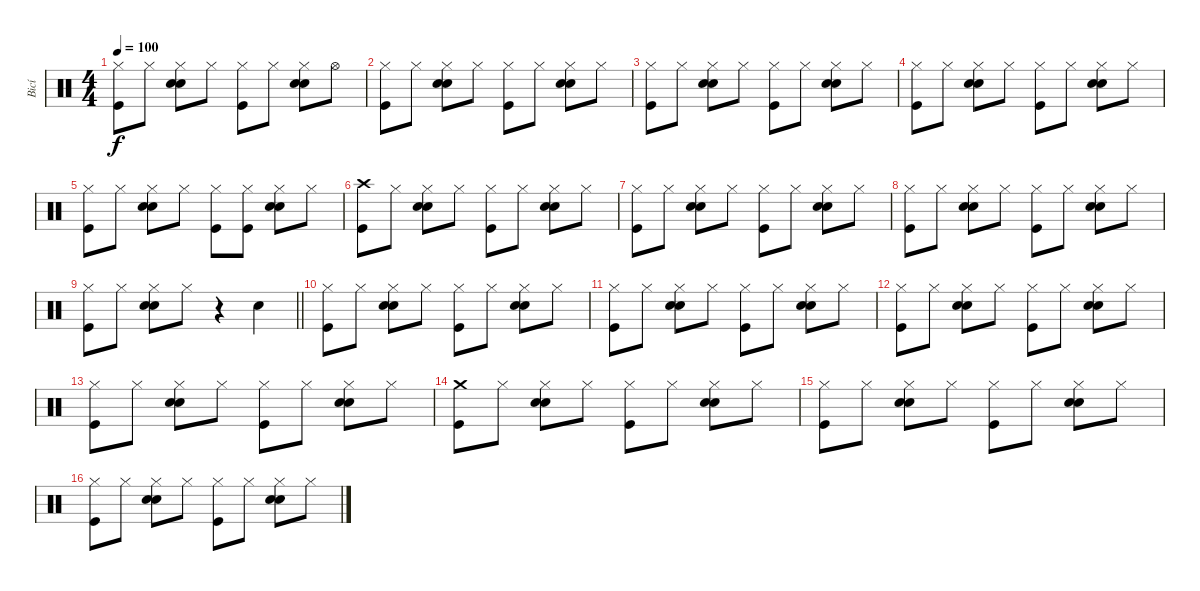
\track ("Bicí" "Bicí") {instrument percussion}
\staff {score}
\articulation defaults
\ts (4 4)
\tempo 100
\clef neutral
\ks c
("Hi-Hat (closed)" "Kick (hit)").8{dy f} "Hi-Hat (closed)".8 ("Hi-Hat (closed)" "Hand Clap (hit)" "Electric Snare (hit)").8 "Hi-Hat (closed)".8 ("Hi-Hat (closed)" "Kick (hit)").8 "Hi-Hat (closed)".8 ("Hi-Hat (closed)" "Hand Clap (hit)" "Electric Snare (hit)").8 "Hi-Hat (open)".8 |
("Hi-Hat (closed)" "Kick (hit)").8 "Hi-Hat (closed)".8 ("Hi-Hat (closed)" "Hand Clap (hit)" "Electric Snare (hit)").8 "Hi-Hat (closed)".8 ("Hi-Hat (closed)" "Kick (hit)").8 "Hi-Hat (closed)".8 ("Hi-Hat (closed)" "Hand Clap (hit)" "Electric Snare (hit)").8 "Hi-Hat (closed)".8 |
("Hi-Hat (closed)" "Kick (hit)").8 "Hi-Hat (closed)".8 ("Hi-Hat (closed)" "Hand Clap (hit)" "Electric Snare (hit)").8 "Hi-Hat (closed)".8 ("Hi-Hat (closed)" "Kick (hit)").8 "Hi-Hat (closed)".8 ("Hi-Hat (closed)" "Hand Clap (hit)" "Electric Snare (hit)").8 "Hi-Hat (closed)".8 |
("Hi-Hat (closed)" "Kick (hit)").8 "Hi-Hat (closed)".8 ("Hi-Hat (closed)" "Hand Clap (hit)" "Electric Snare (hit)").8 "Hi-Hat (closed)".8 ("Hi-Hat (closed)" "Kick (hit)").8 "Hi-Hat (closed)".8 ("Hi-Hat (closed)" "Hand Clap (hit)" "Electric Snare (hit)").8 "Hi-Hat (closed)".8 |
("Hi-Hat (closed)" "Kick (hit)").8 "Hi-Hat (closed)".8 ("Hi-Hat (closed)" "Hand Clap (hit)" "Electric Snare (hit)").8 "Hi-Hat (closed)".8 ("Hi-Hat (closed)" "Kick (hit)").8 ("Hi-Hat (closed)" "Kick (hit)").8 ("Hi-Hat (closed)" "Hand Clap (hit)" "Electric Snare (hit)").8 "Hi-Hat (closed)".8 |
("Crash high (hit)" "Kick (hit)").8 "Hi-Hat (closed)".8 ("Hi-Hat (closed)" "Hand Clap (hit)" "Electric Snare (hit)").8 "Hi-Hat (closed)".8 ("Hi-Hat (closed)" "Kick (hit)").8 "Hi-Hat (closed)".8 ("Hi-Hat (closed)" "Hand Clap (hit)" "Electric Snare (hit)").8 "Hi-Hat (closed)".8 |
("Hi-Hat (closed)" "Kick (hit)").8 "Hi-Hat (closed)".8 ("Hi-Hat (closed)" "Hand Clap (hit)" "Electric Snare (hit)").8 "Hi-Hat (closed)".8 ("Hi-Hat (closed)" "Kick (hit)").8 "Hi-Hat (closed)".8 ("Hi-Hat (closed)" "Hand Clap (hit)" "Electric Snare (hit)").8 "Hi-Hat (closed)".8 |
("Hi-Hat (closed)" "Kick (hit)").8 "Hi-Hat (closed)".8 ("Hi-Hat (closed)" "Hand Clap (hit)" "Electric Snare (hit)").8 "Hi-Hat (closed)".8 ("Hi-Hat (closed)" "Kick (hit)").8 "Hi-Hat (closed)".8 ("Hi-Hat (closed)" "Hand Clap (hit)" "Electric Snare (hit)").8 "Hi-Hat (closed)".8 |
\barLineRight lightlight
("Hi-Hat (closed)" "Kick (hit)").8 "Hi-Hat (closed)".8 ("Hi-Hat (closed)" "Hand Clap (hit)" "Electric Snare (hit)").8 "Hi-Hat (closed)".8 r.4 "Hand Clap (hit)".4 |
\section ("" "")
("Hi-Hat (closed)" "Kick (hit)").8 "Hi-Hat (closed)".8 ("Hi-Hat (closed)" "Hand Clap (hit)" "Electric Snare (hit)").8 "Hi-Hat (closed)".8 ("Hi-Hat (closed)" "Kick (hit)").8 "Hi-Hat (closed)".8 ("Hi-Hat (closed)" "Hand Clap (hit)" "Electric Snare (hit)").8 "Hi-Hat (closed)".8 |
("Hi-Hat (closed)" "Kick (hit)").8 "Hi-Hat (closed)".8 ("Hi-Hat (closed)" "Hand Clap (hit)" "Electric Snare (hit)").8 "Hi-Hat (closed)".8 ("Hi-Hat (closed)" "Kick (hit)").8 "Hi-Hat (closed)".8 ("Hi-Hat (closed)" "Hand Clap (hit)" "Electric Snare (hit)").8 "Hi-Hat (closed)".8 |
("Hi-Hat (closed)" "Kick (hit)").8 "Hi-Hat (closed)".8 ("Hi-Hat (closed)" "Hand Clap (hit)" "Electric Snare (hit)").8 "Hi-Hat (closed)".8 ("Hi-Hat (closed)" "Kick (hit)").8 "Hi-Hat (closed)".8 ("Hi-Hat (closed)" "Hand Clap (hit)" "Electric Snare (hit)").8 "Hi-Hat (closed)".8 |
("Hi-Hat (closed)" "Kick (hit)").8 "Hi-Hat (closed)".8 ("Hi-Hat (closed)" "Hand Clap (hit)" "Electric Snare (hit)").8 "Hi-Hat (closed)".8 ("Hi-Hat (closed)" "Kick (hit)").8 "Hi-Hat (closed)".8 ("Hi-Hat (closed)" "Hand Clap (hit)" "Electric Snare (hit)").8 "Hi-Hat (closed)".8 |
("Crash medium (hit)" "Kick (hit)").8 "Hi-Hat (closed)".8 ("Hi-Hat (closed)" "Hand Clap (hit)" "Electric Snare (hit)").8 "Hi-Hat (closed)".8 ("Hi-Hat (closed)" "Kick (hit)").8 "Hi-Hat (closed)".8 ("Hi-Hat (closed)" "Hand Clap (hit)" "Electric Snare (hit)").8 "Hi-Hat (closed)".8 |
("Hi-Hat (closed)" "Kick (hit)").8 "Hi-Hat (closed)".8 ("Hi-Hat (closed)" "Hand Clap (hit)" "Electric Snare (hit)").8 "Hi-Hat (closed)".8 ("Hi-Hat (closed)" "Kick (hit)").8 "Hi-Hat (closed)".8 ("Hi-Hat (closed)" "Hand Clap (hit)" "Electric Snare (hit)").8 "Hi-Hat (closed)".8 |
("Hi-Hat (closed)" "Kick (hit)").8 "Hi-Hat (closed)".8 ("Hi-Hat (closed)" "Hand Clap (hit)" "Electric Snare (hit)").8 "Hi-Hat (closed)".8 ("Hi-Hat (closed)" "Kick (hit)").8 "Hi-Hat (closed)".8 ("Hi-Hat (closed)" "Hand Clap (hit)" "Electric Snare (hit)").8 "Hi-Hat (closed)".8
